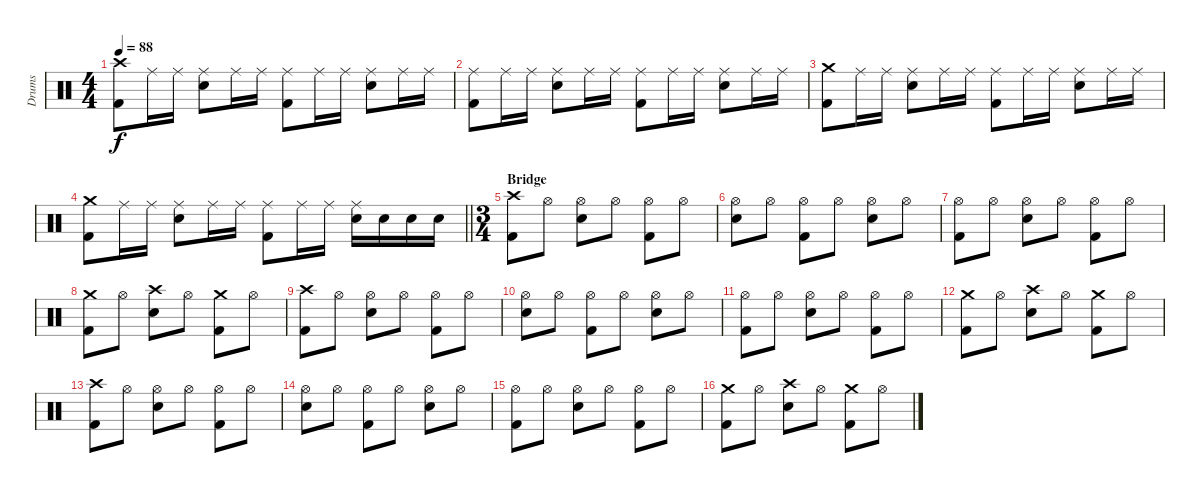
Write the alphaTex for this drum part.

\track ("Drums" "Drums") {instrument percussion}
\staff {score}
\articulation defaults
\ts (4 4)
\tempo 88
\clef neutral
\ks c
("Crash high (hit)" "Kick (hit) 2").8{dy f} "Ride (middle)".16 "Ride (middle)".16 ("Ride (middle)" "Snare (hit) 2").8 "Ride (middle)".16 "Ride (middle)".16 ("Ride (middle)" "Kick (hit) 2").8 "Ride (middle)".16 "Ride (middle)".16 ("Ride (middle)" "Snare (hit) 2").8 "Ride (middle)".16 "Ride (middle)".16 |
("Ride (middle)" "Kick (hit) 2").8 "Ride (middle)".16 "Ride (middle)".16 ("Ride (middle)" "Snare (hit) 2").8 "Ride (middle)".16 "Ride (middle)".16 ("Ride (middle)" "Kick (hit) 2").8 "Ride (middle)".16 "Ride (middle)".16 ("Ride (middle)" "Snare (hit) 2").8 "Ride (middle)".16 "Ride (middle)".16 |
("Crash medium (hit)" "Kick (hit) 2").8 "Ride (middle)".16 "Ride (middle)".16 ("Ride (middle)" "Snare (hit) 2").8 "Ride (middle)".16 "Ride (middle)".16 ("Ride (middle)" "Kick (hit) 2").8 "Ride (middle)".16 "Ride (middle)".16 ("Ride (middle)" "Snare (hit) 2").8 "Ride (middle)".16 "Ride (middle)".16 |
\barLineRight lightlight
("Crash medium (hit)" "Kick (hit) 2").8 "Ride (middle)".16 "Ride (middle)".16 ("Ride (middle)" "Snare (hit) 2").8 "Ride (middle)".16 "Ride (middle)".16 ("Ride (middle)" "Kick (hit) 2").8 "Ride (middle)".16 "Ride (middle)".16 ("Ride (middle)" "Snare (hit) 2").16 "Snare (hit) 2".16 "Snare (hit) 2".16 "Snare (hit) 2".16 |
\ts (3 4)
\section ("" "Bridge")
("Crash high (hit)" "Kick (hit) 2").8 "Hi-Hat (open)".8 ("Hi-Hat (open)" "Snare (hit) 2").8 "Hi-Hat (open)".8 ("Hi-Hat (open)" "Kick (hit) 2").8 "Hi-Hat (open)".8 |
("Hi-Hat (open)" "Snare (hit) 2").8 "Hi-Hat (open)".8 ("Hi-Hat (open)" "Kick (hit) 2").8 "Hi-Hat (open)".8 ("Hi-Hat (open)" "Snare (hit) 2").8 "Hi-Hat (open)".8 |
("Hi-Hat (open)" "Kick (hit) 2").8 "Hi-Hat (open)".8 ("Hi-Hat (open)" "Snare (hit) 2").8 "Hi-Hat (open)".8 ("Hi-Hat (open)" "Kick (hit) 2").8 "Hi-Hat (open)".8 |
("Crash medium (hit)" "Kick (hit) 2").8 "Hi-Hat (open)".8 ("Crash high (hit)" "Snare (hit) 2").8 "Hi-Hat (open)".8 ("Crash medium (hit)" "Kick (hit) 2").8 "Hi-Hat (open)".8 |
("Crash high (hit)" "Kick (hit) 2").8 "Hi-Hat (open)".8 ("Hi-Hat (open)" "Snare (hit) 2").8 "Hi-Hat (open)".8 ("Hi-Hat (open)" "Kick (hit) 2").8 "Hi-Hat (open)".8 |
("Hi-Hat (open)" "Snare (hit) 2").8 "Hi-Hat (open)".8 ("Hi-Hat (open)" "Kick (hit) 2").8 "Hi-Hat (open)".8 ("Hi-Hat (open)" "Snare (hit) 2").8 "Hi-Hat (open)".8 |
("Hi-Hat (open)" "Kick (hit) 2").8 "Hi-Hat (open)".8 ("Hi-Hat (open)" "Snare (hit) 2").8 "Hi-Hat (open)".8 ("Hi-Hat (open)" "Kick (hit) 2").8 "Hi-Hat (open)".8 |
("Crash medium (hit)" "Kick (hit) 2").8 "Hi-Hat (open)".8 ("Crash high (hit)" "Snare (hit) 2").8 "Hi-Hat (open)".8 ("Crash medium (hit)" "Kick (hit) 2").8 "Hi-Hat (open)".8 |
("Crash high (hit)" "Kick (hit) 2").8 "Hi-Hat (open)".8 ("Hi-Hat (open)" "Snare (hit) 2").8 "Hi-Hat (open)".8 ("Hi-Hat (open)" "Kick (hit) 2").8 "Hi-Hat (open)".8 |
("Hi-Hat (open)" "Snare (hit) 2").8 "Hi-Hat (open)".8 ("Hi-Hat (open)" "Kick (hit) 2").8 "Hi-Hat (open)".8 ("Hi-Hat (open)" "Snare (hit) 2").8 "Hi-Hat (open)".8 |
("Hi-Hat (open)" "Kick (hit) 2").8 "Hi-Hat (open)".8 ("Hi-Hat (open)" "Snare (hit) 2").8 "Hi-Hat (open)".8 ("Hi-Hat (open)" "Kick (hit) 2").8 "Hi-Hat (open)".8 |
("Crash medium (hit)" "Kick (hit) 2").8 "Hi-Hat (open)".8 ("Crash high (hit)" "Snare (hit) 2").8 "Hi-Hat (open)".8 ("Crash medium (hit)" "Kick (hit) 2").8 "Hi-Hat (open)".8
